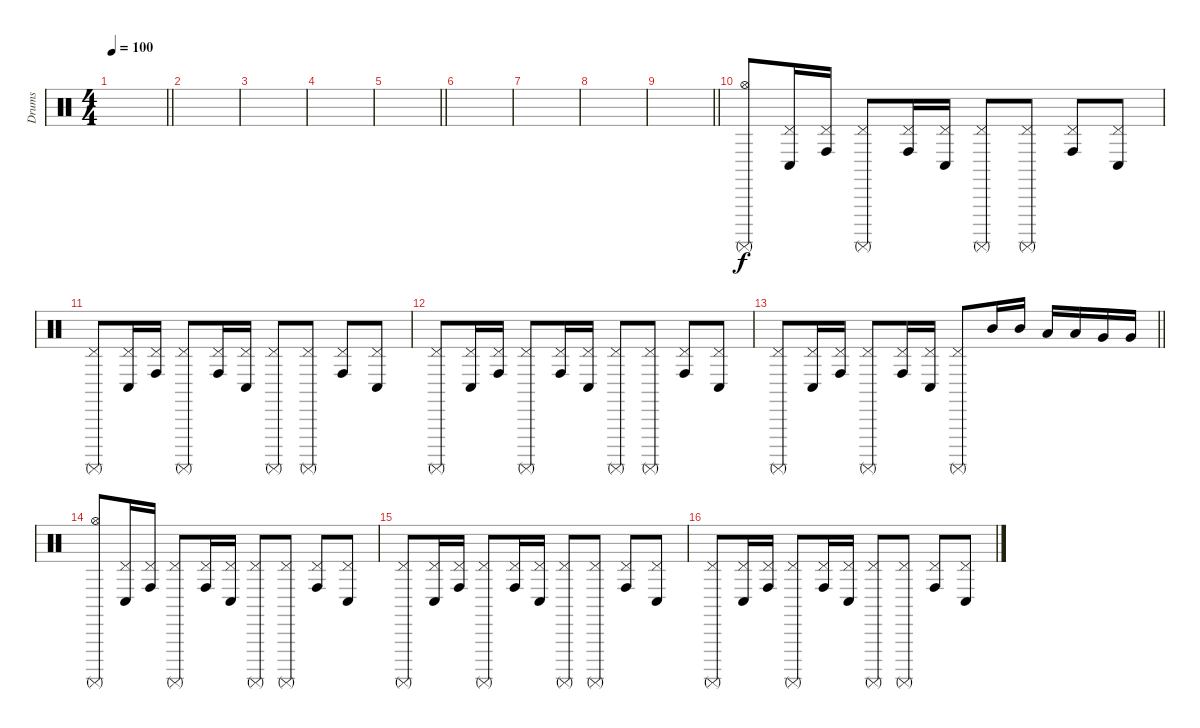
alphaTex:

\track ("Drums" "Drums") {instrument percussion}
\staff
\articulation defaults
\ts (4 4)
\tempo 100
\clef neutral
\barLineRight lightlight
\ks c
|
|
|
|
\barLineRight lightlight
|
|
|
|
\barLineRight lightlight
|
("Hi-Hat (open)" "Surdo (mute)").8 ("Pedal Hi-Hat (hit)" "Conga low (hit)").16 ("Pedal Hi-Hat (hit)" "Conga high (hit)").16 ("Pedal Hi-Hat (hit)" "Surdo (mute)").8 ("Pedal Hi-Hat (hit)" "Conga high (hit)").16 ("Pedal Hi-Hat (hit)" "Conga low (hit)").16 ("Pedal Hi-Hat (hit)" "Surdo (mute)").8 ("Pedal Hi-Hat (hit)" "Surdo (mute)").8 ("Pedal Hi-Hat (hit)" "Conga high (hit)").8 ("Pedal Hi-Hat (hit)" "Conga low (hit)").8 |
("Pedal Hi-Hat (hit)" "Surdo (mute)").8 ("Pedal Hi-Hat (hit)" "Conga low (hit)").16 ("Pedal Hi-Hat (hit)" "Conga high (hit)").16 ("Pedal Hi-Hat (hit)" "Surdo (mute)").8 ("Pedal Hi-Hat (hit)" "Conga high (hit)").16 ("Pedal Hi-Hat (hit)" "Conga low (hit)").16 ("Pedal Hi-Hat (hit)" "Surdo (mute)").8 ("Pedal Hi-Hat (hit)" "Surdo (mute)").8 ("Pedal Hi-Hat (hit)" "Conga high (hit)").8 ("Pedal Hi-Hat (hit)" "Conga low (hit)").8 |
("Pedal Hi-Hat (hit)" "Surdo (mute)").8 ("Pedal Hi-Hat (hit)" "Conga low (hit)").16 ("Pedal Hi-Hat (hit)" "Conga high (hit)").16 ("Pedal Hi-Hat (hit)" "Surdo (mute)").8 ("Pedal Hi-Hat (hit)" "Conga high (hit)").16 ("Pedal Hi-Hat (hit)" "Conga low (hit)").16 ("Pedal Hi-Hat (hit)" "Surdo (mute)").8 ("Pedal Hi-Hat (hit)" "Surdo (mute)").8 ("Pedal Hi-Hat (hit)" "Conga high (hit)").8 ("Pedal Hi-Hat (hit)" "Conga low (hit)").8 |
\barLineRight lightlight
("Pedal Hi-Hat (hit)" "Surdo (mute)").8 ("Pedal Hi-Hat (hit)" "Conga low (hit)").16 ("Pedal Hi-Hat (hit)" "Conga high (hit)").16 ("Pedal Hi-Hat (hit)" "Surdo (mute)").8 ("Pedal Hi-Hat (hit)" "Conga high (hit)").16 ("Pedal Hi-Hat (hit)" "Conga low (hit)").16 ("Pedal Hi-Hat (hit)" "Surdo (mute)").8 "Mid Tom (hit)".16 "Mid Tom (hit)".16 "Low Tom (hit)".16 "Low Tom (hit)".16 "Very Low Tom (hit)".16 "Very Low Tom (hit)".16 |
("Hi-Hat (open)" "Surdo (mute)").8 ("Pedal Hi-Hat (hit)" "Conga low (hit)").16 ("Pedal Hi-Hat (hit)" "Conga high (hit)").16 ("Pedal Hi-Hat (hit)" "Surdo (mute)").8 ("Pedal Hi-Hat (hit)" "Conga high (hit)").16 ("Pedal Hi-Hat (hit)" "Conga low (hit)").16 ("Pedal Hi-Hat (hit)" "Surdo (mute)").8 ("Pedal Hi-Hat (hit)" "Surdo (mute)").8 ("Pedal Hi-Hat (hit)" "Conga high (hit)").8 ("Pedal Hi-Hat (hit)" "Conga low (hit)").8 |
("Pedal Hi-Hat (hit)" "Surdo (mute)").8 ("Pedal Hi-Hat (hit)" "Conga low (hit)").16 ("Pedal Hi-Hat (hit)" "Conga high (hit)").16 ("Pedal Hi-Hat (hit)" "Surdo (mute)").8 ("Pedal Hi-Hat (hit)" "Conga high (hit)").16 ("Pedal Hi-Hat (hit)" "Conga low (hit)").16 ("Pedal Hi-Hat (hit)" "Surdo (mute)").8 ("Pedal Hi-Hat (hit)" "Surdo (mute)").8 ("Pedal Hi-Hat (hit)" "Conga high (hit)").8 ("Pedal Hi-Hat (hit)" "Conga low (hit)").8 |
("Pedal Hi-Hat (hit)" "Surdo (mute)").8 ("Pedal Hi-Hat (hit)" "Conga low (hit)").16 ("Pedal Hi-Hat (hit)" "Conga high (hit)").16 ("Pedal Hi-Hat (hit)" "Surdo (mute)").8 ("Pedal Hi-Hat (hit)" "Conga high (hit)").16 ("Pedal Hi-Hat (hit)" "Conga low (hit)").16 ("Pedal Hi-Hat (hit)" "Surdo (mute)").8 ("Pedal Hi-Hat (hit)" "Surdo (mute)").8 ("Pedal Hi-Hat (hit)" "Conga high (hit)").8 ("Pedal Hi-Hat (hit)" "Conga low (hit)").8
